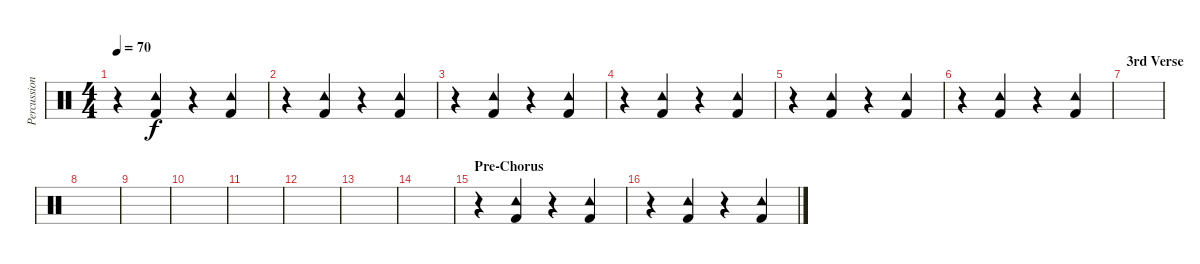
\track ("Percussion" "Percussion") {instrument percussion}
\staff {score}
\articulation defaults
\ts (4 4)
\tempo 70
\clef neutral
\ks c
r.4{dy f} ("Tambourine (hit)" "Kick (hit) 2").4 r.4 ("Tambourine (hit)" "Kick (hit) 2").4 |
r.4 ("Tambourine (hit)" "Kick (hit) 2").4 r.4 ("Tambourine (hit)" "Kick (hit) 2").4 |
r.4 ("Tambourine (hit)" "Kick (hit) 2").4 r.4 ("Tambourine (hit)" "Kick (hit) 2").4 |
r.4 ("Tambourine (hit)" "Kick (hit) 2").4 r.4 ("Tambourine (hit)" "Kick (hit) 2").4 |
r.4 ("Tambourine (hit)" "Kick (hit) 2").4 r.4 ("Tambourine (hit)" "Kick (hit) 2").4 |
r.4 ("Tambourine (hit)" "Kick (hit) 2").4 r.4 ("Tambourine (hit)" "Kick (hit) 2").4 |
\section ("" "3rd Verse")
|
|
|
|
|
|
|
|
\section ("" "Pre-Chorus")
r.4 ("Tambourine (hit)" "Kick (hit) 2").4 r.4 ("Tambourine (hit)" "Kick (hit) 2").4 |
r.4 ("Tambourine (hit)" "Kick (hit) 2").4 r.4 ("Tambourine (hit)" "Kick (hit) 2").4
